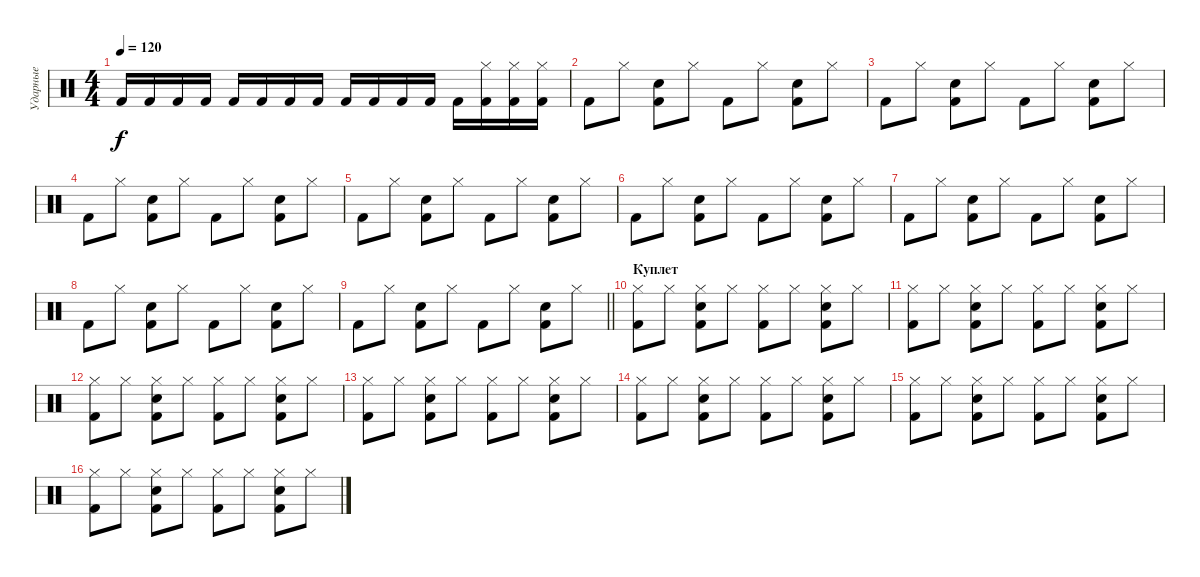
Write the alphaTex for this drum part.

\track ("Ударные" "Ударные") {instrument percussion}
\staff {score}
\articulation defaults
\ts (4 4)
\tempo 120
\clef neutral
\ks c "Kick (hit) 2".16{dy f} "Kick (hit) 2".16 "Kick (hit) 2".16 "Kick (hit) 2".16 "Kick (hit) 2".16 "Kick (hit) 2".16 "Kick (hit) 2".16 "Kick (hit) 2".16 "Kick (hit) 2".16 "Kick (hit) 2".16 "Kick (hit) 2".16 "Kick (hit) 2".16 "Kick (hit) 2".16
("Kick (hit) 2" "Hi-Hat (closed)").16 ("Kick (hit) 2" "Hi-Hat (closed)").16 ("Kick (hit) 2" "Hi-Hat (closed)").16 |
"Kick (hit) 2".8 "Hi-Hat (closed)".8 ("Kick (hit) 2" "Snare (hit) 2").8 "Hi-Hat (closed)".8 "Kick (hit) 2".8 "Hi-Hat (closed)".8 ("Kick (hit) 2" "Snare (hit) 2").8 "Hi-Hat (closed)".8 |
"Kick (hit) 2".8 "Hi-Hat (closed)".8 ("Kick (hit) 2" "Snare (hit) 2").8 "Hi-Hat (closed)".8 "Kick (hit) 2".8 "Hi-Hat (closed)".8 ("Kick (hit) 2" "Snare (hit) 2").8 "Hi-Hat (closed)".8 |
"Kick (hit) 2".8 "Hi-Hat (closed)".8 ("Kick (hit) 2" "Snare (hit) 2").8 "Hi-Hat (closed)".8 "Kick (hit) 2".8 "Hi-Hat (closed)".8 ("Kick (hit) 2" "Snare (hit) 2").8 "Hi-Hat (closed)".8 |
"Kick (hit) 2".8 "Hi-Hat (closed)".8 ("Kick (hit) 2" "Snare (hit) 2").8 "Hi-Hat (closed)".8 "Kick (hit) 2".8 "Hi-Hat (closed)".8 ("Kick (hit) 2" "Snare (hit) 2").8 "Hi-Hat (closed)".8 |
"Kick (hit) 2".8 "Hi-Hat (closed)".8 ("Kick (hit) 2" "Snare (hit) 2").8 "Hi-Hat (closed)".8 "Kick (hit) 2".8 "Hi-Hat (closed)".8 ("Kick (hit) 2" "Snare (hit) 2").8 "Hi-Hat (closed)".8 |
"Kick (hit) 2".8 "Hi-Hat (closed)".8 ("Kick (hit) 2" "Snare (hit) 2").8 "Hi-Hat (closed)".8 "Kick (hit) 2".8 "Hi-Hat (closed)".8 ("Kick (hit) 2" "Snare (hit) 2").8 "Hi-Hat (closed)".8 |
"Kick (hit) 2".8 "Hi-Hat (closed)".8 ("Kick (hit) 2" "Snare (hit) 2").8 "Hi-Hat (closed)".8 "Kick (hit) 2".8 "Hi-Hat (closed)".8 ("Kick (hit) 2" "Snare (hit) 2").8 "Hi-Hat (closed)".8 |
\barLineRight lightlight "Kick (hit) 2".8 "Hi-Hat (closed)".8
("Kick (hit) 2" "Snare (hit) 2").8 "Hi-Hat (closed)".8 "Kick (hit) 2".8 "Hi-Hat (closed)".8 ("Kick (hit) 2" "Snare (hit) 2").8 "Hi-Hat (closed)".8 |
\section ("" "Куплет")
("Kick (hit) 2" "Hi-Hat (closed)").8 "Hi-Hat (closed)".8 ("Kick (hit) 2" "Snare (hit) 2" "Hi-Hat (closed)").8 "Hi-Hat (closed)".8 ("Kick (hit) 2" "Hi-Hat (closed)").8 "Hi-Hat (closed)".8 ("Kick (hit) 2" "Snare (hit) 2" "Hi-Hat (closed)").8 "Hi-Hat (closed)".8 |
("Kick (hit) 2" "Hi-Hat (closed)").8 "Hi-Hat (closed)".8 ("Kick (hit) 2" "Snare (hit) 2" "Hi-Hat (closed)").8 "Hi-Hat (closed)".8 ("Kick (hit) 2" "Hi-Hat (closed)").8 "Hi-Hat (closed)".8 ("Kick (hit) 2" "Snare (hit) 2" "Hi-Hat (closed)").8 "Hi-Hat (closed)".8 |
("Kick (hit) 2" "Hi-Hat (closed)").8 "Hi-Hat (closed)".8 ("Kick (hit) 2" "Snare (hit) 2" "Hi-Hat (closed)").8 "Hi-Hat (closed)".8 ("Kick (hit) 2" "Hi-Hat (closed)").8 "Hi-Hat (closed)".8 ("Kick (hit) 2" "Snare (hit) 2" "Hi-Hat (closed)").8 "Hi-Hat (closed)".8 |
("Kick (hit) 2" "Hi-Hat (closed)").8 "Hi-Hat (closed)".8 ("Kick (hit) 2" "Snare (hit) 2" "Hi-Hat (closed)").8 "Hi-Hat (closed)".8 ("Kick (hit) 2" "Hi-Hat (closed)").8 "Hi-Hat (closed)".8 ("Kick (hit) 2" "Snare (hit) 2" "Hi-Hat (closed)").8 "Hi-Hat (closed)".8 |
("Kick (hit) 2" "Hi-Hat (closed)").8 "Hi-Hat (closed)".8 ("Kick (hit) 2" "Snare (hit) 2" "Hi-Hat (closed)").8 "Hi-Hat (closed)".8 ("Kick (hit) 2" "Hi-Hat (closed)").8 "Hi-Hat (closed)".8 ("Kick (hit) 2" "Snare (hit) 2" "Hi-Hat (closed)").8 "Hi-Hat (closed)".8 |
("Kick (hit) 2" "Hi-Hat (closed)").8 "Hi-Hat (closed)".8 ("Kick (hit) 2" "Snare (hit) 2" "Hi-Hat (closed)").8 "Hi-Hat (closed)".8 ("Kick (hit) 2" "Hi-Hat (closed)").8 "Hi-Hat (closed)".8 ("Kick (hit) 2" "Snare (hit) 2" "Hi-Hat (closed)").8 "Hi-Hat (closed)".8 |
("Kick (hit) 2" "Hi-Hat (closed)").8 "Hi-Hat (closed)".8 ("Kick (hit) 2" "Snare (hit) 2" "Hi-Hat (closed)").8 "Hi-Hat (closed)".8 ("Kick (hit) 2" "Hi-Hat (closed)").8 "Hi-Hat (closed)".8 ("Kick (hit) 2" "Snare (hit) 2" "Hi-Hat (closed)").8 "Hi-Hat (closed)".8
